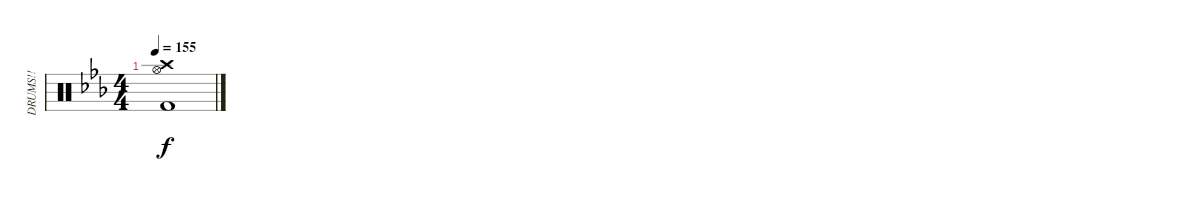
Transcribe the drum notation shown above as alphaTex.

\track ("DRUMS!!" "DRUMS!!") {instrument percussion}
\staff {score}
\articulation defaults
\ts (4 4)
\tempo 155
\clef neutral
\ks cminor
("Crash high (hit)" "Hi-Hat (open)" "Kick (hit) 2").1{dy f}
